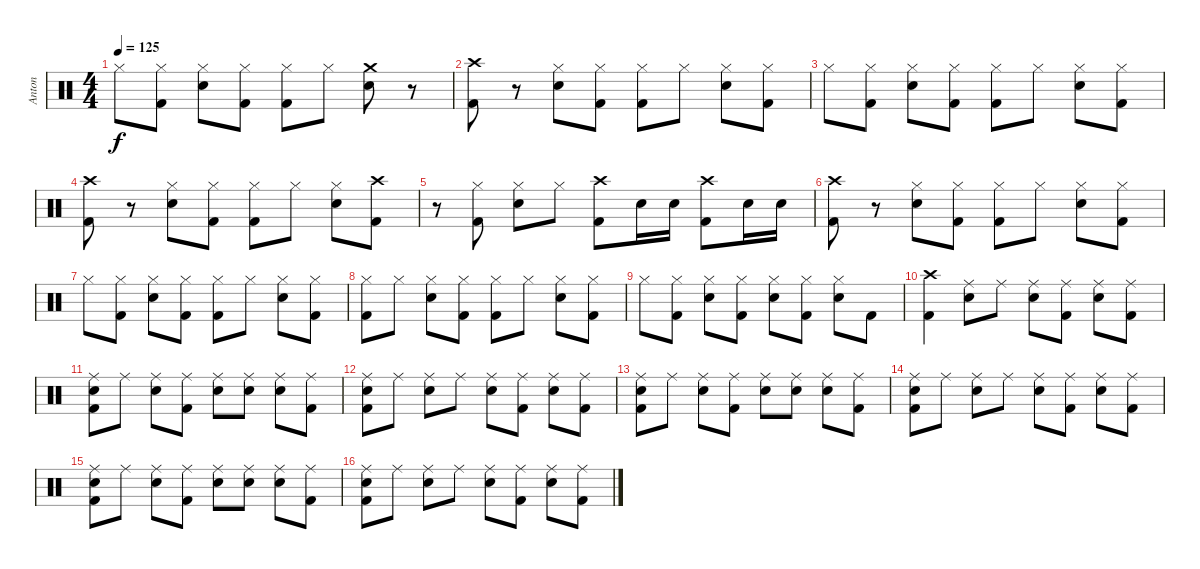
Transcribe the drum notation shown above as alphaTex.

\track ("Anton" "Anton") {instrument percussion}
\staff {score}
\articulation defaults
\ts (4 4)
\tempo 125
\clef neutral
\ks c "Hi-Hat (closed)".8{dy f}
("Kick (hit) 2" "Hi-Hat (closed)").8 ("Electric Snare (hit)" "Hi-Hat (closed)").8 ("Kick (hit) 2" "Hi-Hat (closed)").8 ("Kick (hit) 2" "Hi-Hat (closed)").8 "Hi-Hat (closed)".8 ("Electric Snare (hit)" "Crash medium (hit)").8 r.8 |
("Kick (hit) 2" "Crash high (hit)").8 r.8 ("Electric Snare (hit)" "Hi-Hat (closed)").8 ("Kick (hit) 2" "Hi-Hat (closed)").8 ("Kick (hit) 2" "Hi-Hat (closed)").8 "Hi-Hat (closed)".8 ("Electric Snare (hit)" "Hi-Hat (closed)").8 ("Kick (hit) 2" "Hi-Hat (closed)").8 |
"Hi-Hat (closed)".8 ("Kick (hit) 2" "Hi-Hat (closed)").8 ("Electric Snare (hit)" "Hi-Hat (closed)").8 ("Kick (hit) 2" "Hi-Hat (closed)").8 ("Kick (hit) 2" "Hi-Hat (closed)").8 "Hi-Hat (closed)".8 ("Electric Snare (hit)" "Hi-Hat (closed)").8 ("Kick (hit) 2" "Hi-Hat (closed)").8 |
("Kick (hit) 2" "Crash high (hit)").8 r.8 ("Electric Snare (hit)" "Hi-Hat (closed)").8 ("Kick (hit) 2" "Hi-Hat (closed)").8 ("Kick (hit) 2" "Hi-Hat (closed)").8 "Hi-Hat (closed)".8 ("Electric Snare (hit)" "Hi-Hat (closed)").8 ("Kick (hit) 2" "Crash high (hit)").8 |
r.8 ("Kick (hit) 2" "Hi-Hat (closed)").8 ("Electric Snare (hit)" "Hi-Hat (closed)").8 "Hi-Hat (closed)".8 ("Kick (hit) 2" "Crash high (hit)").8 "Electric Snare (hit)".16 "Electric Snare (hit)".16 ("Kick (hit) 2" "Crash high (hit)").8 "Electric Snare (hit)".16 "Electric Snare (hit)".16 |
("Kick (hit) 2" "Crash high (hit)").8 r.8 ("Electric Snare (hit)" "Hi-Hat (closed)").8 ("Kick (hit) 2" "Hi-Hat (closed)").8 ("Kick (hit) 2" "Hi-Hat (closed)").8 "Hi-Hat (closed)".8 ("Electric Snare (hit)" "Hi-Hat (closed)").8 ("Kick (hit) 2" "Hi-Hat (closed)").8 |
"Hi-Hat (closed)".8 ("Kick (hit) 2" "Hi-Hat (closed)").8 ("Electric Snare (hit)" "Hi-Hat (closed)").8 ("Kick (hit) 2" "Hi-Hat (closed)").8 ("Kick (hit) 2" "Hi-Hat (closed)").8 "Hi-Hat (closed)".8 ("Electric Snare (hit)" "Hi-Hat (closed)").8 ("Kick (hit) 2" "Hi-Hat (closed)").8 |
("Kick (hit) 2" "Hi-Hat (closed)").8 "Hi-Hat (closed)".8 ("Electric Snare (hit)" "Hi-Hat (closed)").8 ("Kick (hit) 2" "Hi-Hat (closed)").8 ("Kick (hit) 2" "Hi-Hat (closed)").8 "Hi-Hat (closed)".8 ("Electric Snare (hit)" "Hi-Hat (closed)").8 ("Kick (hit) 2" "Hi-Hat (closed)").8 |
"Hi-Hat (closed)".8 ("Kick (hit) 2" "Hi-Hat (closed)").8 ("Electric Snare (hit)" "Hi-Hat (closed)").8 ("Kick (hit) 2" "Hi-Hat (closed)").8 ("Electric Snare (hit)" "Hi-Hat (closed)").8 ("Kick (hit) 2" "Hi-Hat (closed)").8 ("Electric Snare (hit)" "Hi-Hat (closed)").8 "Kick (hit) 2".8 |
("Kick (hit) 2" "Crash high (hit)").4 ("Electric Snare (hit)" "Ride (middle)").8 "Ride (middle)".8 ("Electric Snare (hit)" "Ride (middle)").8 ("Kick (hit) 2" "Ride (middle)").8 ("Electric Snare (hit)" "Ride (middle)").8 ("Kick (hit) 2" "Ride (middle)").8 |
("Kick (hit) 2" "Electric Snare (hit)" "Ride (middle)").8 "Ride (middle)".8 ("Electric Snare (hit)" "Ride (middle)").8 ("Kick (hit) 2" "Ride (middle)").8 ("Electric Snare (hit)" "Ride (middle)").8 ("Electric Snare (hit)" "Ride (middle)").8 ("Electric Snare (hit)" "Ride (middle)").8 ("Kick (hit) 2" "Ride (middle)").8 |
("Kick (hit) 2" "Electric Snare (hit)" "Ride (middle)").8 "Ride (middle)".8 ("Electric Snare (hit)" "Ride (middle)").8 "Ride (middle)".8 ("Electric Snare (hit)" "Ride (middle)").8 ("Kick (hit) 2" "Ride (middle)").8 ("Electric Snare (hit)" "Ride (middle)").8 ("Kick (hit) 2" "Ride (middle)").8 |
("Kick (hit) 2" "Electric Snare (hit)" "Ride (middle)").8 "Ride (middle)".8 ("Electric Snare (hit)" "Ride (middle)").8 ("Kick (hit) 2" "Ride (middle)").8 ("Electric Snare (hit)" "Ride (middle)").8 ("Electric Snare (hit)" "Ride (middle)").8 ("Electric Snare (hit)" "Ride (middle)").8 ("Kick (hit) 2" "Ride (middle)").8 |
("Kick (hit) 2" "Electric Snare (hit)" "Ride (middle)").8 "Ride (middle)".8 ("Electric Snare (hit)" "Ride (middle)").8 "Ride (middle)".8 ("Electric Snare (hit)" "Ride (middle)").8 ("Kick (hit) 2" "Ride (middle)").8 ("Electric Snare (hit)" "Ride (middle)").8 ("Kick (hit) 2" "Ride (middle)").8 |
("Kick (hit) 2" "Electric Snare (hit)" "Ride (middle)").8 "Ride (middle)".8 ("Electric Snare (hit)" "Ride (middle)").8 ("Kick (hit) 2" "Ride (middle)").8 ("Electric Snare (hit)" "Ride (middle)").8 ("Electric Snare (hit)" "Ride (middle)").8 ("Electric Snare (hit)" "Ride (middle)").8 ("Kick (hit) 2" "Ride (middle)").8 |
("Kick (hit) 2" "Electric Snare (hit)" "Ride (middle)").8 "Ride (middle)".8 ("Electric Snare (hit)" "Ride (middle)").8 "Ride (middle)".8 ("Electric Snare (hit)" "Ride (middle)").8 ("Kick (hit) 2" "Ride (middle)").8 ("Electric Snare (hit)" "Ride (middle)").8 ("Kick (hit) 2" "Ride (middle)").8
